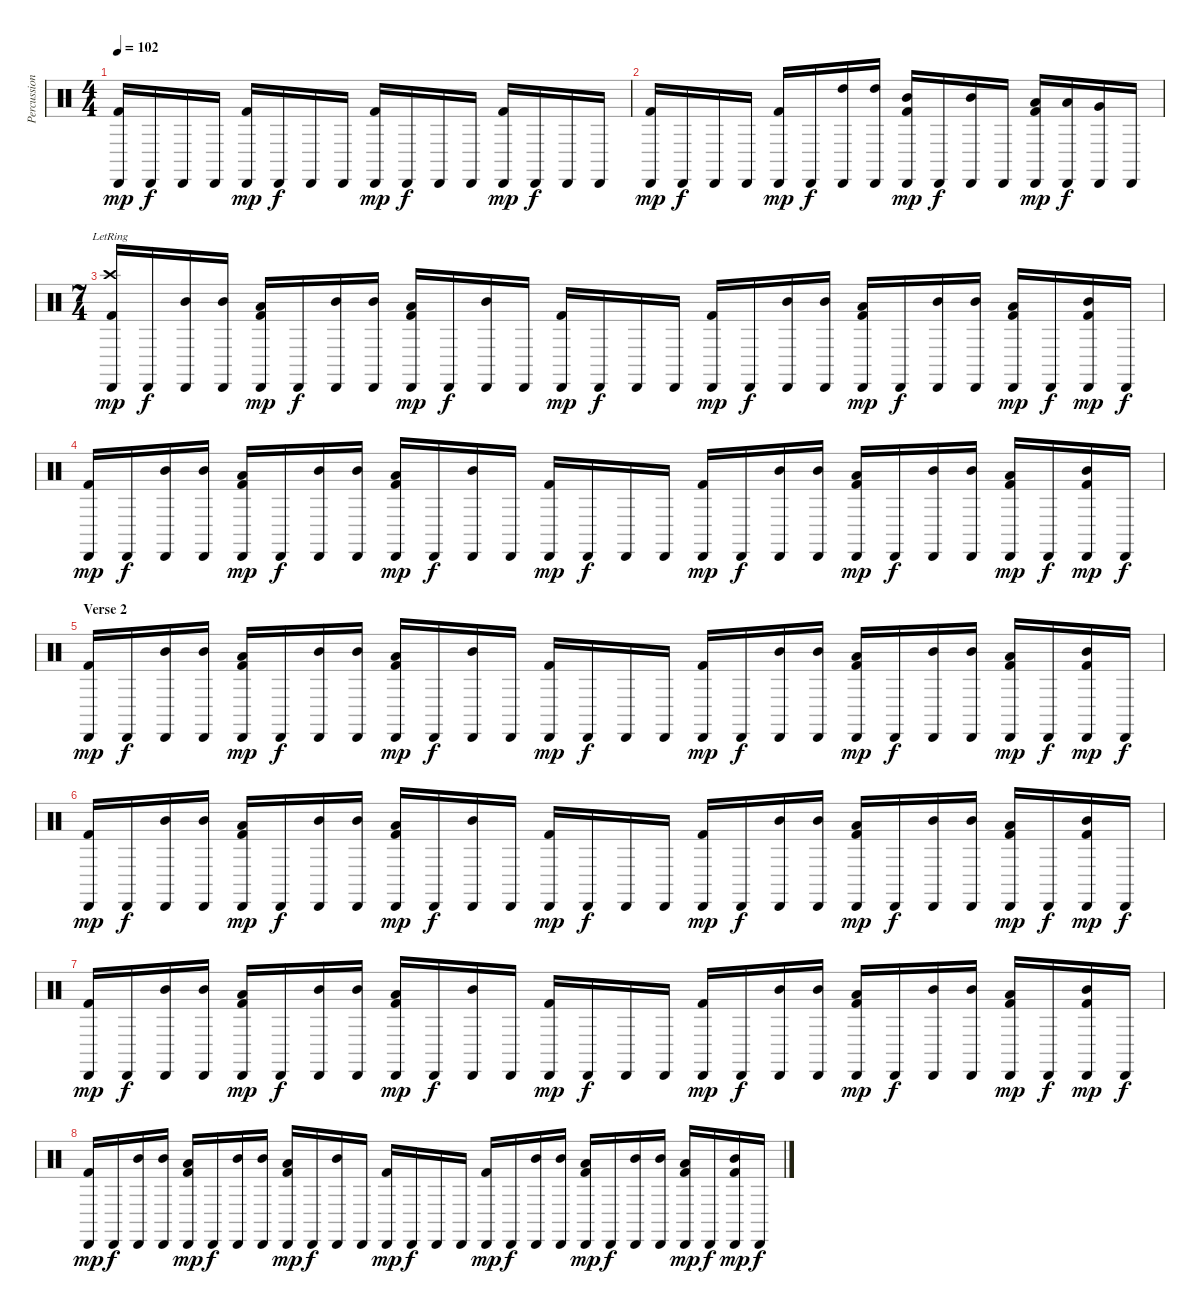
\track ("Percussion" "Percussion") {instrument percussion}
\staff {score}
\articulation defaults
\ts (4 4)
\tempo 102
\clef neutral
\ks c
("Cabasa (hit)" "Kick (hit) 2").16{dy mp} "Cabasa (hit)".16{dy f} "Cabasa (hit)".16 "Cabasa (hit)".16 ("Cabasa (hit)" "Kick (hit) 2").16{dy mp} "Cabasa (hit)".16{dy f} "Cabasa (hit)".16 "Cabasa (hit)".16 ("Cabasa (hit)" "Kick (hit) 2").16{dy mp} "Cabasa (hit)".16{dy f} "Cabasa (hit)".16 "Cabasa (hit)".16 ("Cabasa (hit)" "Kick (hit) 2").16{dy mp} "Cabasa (hit)".16{dy f} "Cabasa (hit)".16 "Cabasa (hit)".16 |
("Cabasa (hit)" "Kick (hit) 2").16{dy mp} "Cabasa (hit)".16{dy f} "Cabasa (hit)".16 "Cabasa (hit)".16 ("Cabasa (hit)" "Kick (hit) 2").16{dy mp} "Cabasa (hit)".16{dy f} ("Cabasa (hit)" "High Tom (hit)").16 ("Cabasa (hit)" "High Tom (hit)").16 ("Cabasa (hit)" "Mid Tom (hit)" "Kick (hit) 2").16{dy mp} "Cabasa (hit)".16{dy f} ("Cabasa (hit)" "Mid Tom (hit)").16 "Cabasa (hit)".16 ("Cabasa (hit)" "Low Tom (hit)" "Kick (hit) 2").16{dy mp} ("Cabasa (hit)" "Low Tom (hit)").16{dy f} ("Cabasa (hit)" "Very Low Tom (hit)").16 "Cabasa (hit)".16 |
\ts (7 4)
("Crash high (hit)"{lr} "Cabasa (hit)" "Kick (hit) 2").16{dy mp} "Cabasa (hit)".16{dy f} ("Cabasa (hit)" "Mid Tom (hit)").16 ("Cabasa (hit)" "Mid Tom (hit)").16 ("Cabasa (hit)" "Low Tom (hit)" "Kick (hit) 2").16{dy mp} "Cabasa (hit)".16{dy f} ("Cabasa (hit)" "Mid Tom (hit)").16 ("Cabasa (hit)" "Mid Tom (hit)").16 ("Cabasa (hit)" "Low Tom (hit)" "Kick (hit) 2").16{dy mp} "Cabasa (hit)".16{dy f} ("Cabasa (hit)" "Mid Tom (hit)").16 "Cabasa (hit)".16 ("Cabasa (hit)" "Kick (hit) 2").16{dy mp} "Cabasa (hit)".16{dy f} "Cabasa (hit)".16 "Cabasa (hit)".16 ("Cabasa (hit)" "Kick (hit) 2").16{dy mp} "Cabasa (hit)".16{dy f} ("Cabasa (hit)" "Mid Tom (hit)").16 ("Cabasa (hit)" "Mid Tom (hit)").16 ("Cabasa (hit)" "Low Tom (hit)" "Kick (hit) 2").16{dy mp} "Cabasa (hit)".16{dy f} ("Cabasa (hit)" "Mid Tom (hit)").16 ("Cabasa (hit)" "Mid Tom (hit)").16 ("Cabasa (hit)" "Low Tom (hit)" "Kick (hit) 2").16{dy mp} "Cabasa (hit)".16{dy f} ("Cabasa (hit)" "Mid Tom (hit)" "Kick (hit) 2").16{dy mp} "Cabasa (hit)".16{dy f} |
("Cabasa (hit)" "Kick (hit) 2").16{dy mp} "Cabasa (hit)".16{dy f} ("Cabasa (hit)" "Mid Tom (hit)").16 ("Cabasa (hit)" "Mid Tom (hit)").16 ("Cabasa (hit)" "Low Tom (hit)" "Kick (hit) 2").16{dy mp} "Cabasa (hit)".16{dy f} ("Cabasa (hit)" "Mid Tom (hit)").16 ("Cabasa (hit)" "Mid Tom (hit)").16 ("Cabasa (hit)" "Low Tom (hit)" "Kick (hit) 2").16{dy mp} "Cabasa (hit)".16{dy f} ("Cabasa (hit)" "Mid Tom (hit)").16 "Cabasa (hit)".16 ("Cabasa (hit)" "Kick (hit) 2").16{dy mp} "Cabasa (hit)".16{dy f} "Cabasa (hit)".16 "Cabasa (hit)".16 ("Cabasa (hit)" "Kick (hit) 2").16{dy mp} "Cabasa (hit)".16{dy f} ("Cabasa (hit)" "Mid Tom (hit)").16 ("Cabasa (hit)" "Mid Tom (hit)").16 ("Cabasa (hit)" "Low Tom (hit)" "Kick (hit) 2").16{dy mp} "Cabasa (hit)".16{dy f} ("Cabasa (hit)" "Mid Tom (hit)").16 ("Cabasa (hit)" "Mid Tom (hit)").16 ("Cabasa (hit)" "Low Tom (hit)" "Kick (hit) 2").16{dy mp} "Cabasa (hit)".16{dy f} ("Cabasa (hit)" "Mid Tom (hit)" "Kick (hit) 2").16{dy mp} "Cabasa (hit)".16{dy f} |
\section ("" "Verse 2")
("Cabasa (hit)" "Kick (hit) 2").16{dy mp} "Cabasa (hit)".16{dy f} ("Cabasa (hit)" "Mid Tom (hit)").16 ("Cabasa (hit)" "Mid Tom (hit)").16 ("Cabasa (hit)" "Low Tom (hit)" "Kick (hit) 2").16{dy mp} "Cabasa (hit)".16{dy f} ("Cabasa (hit)" "Mid Tom (hit)").16 ("Cabasa (hit)" "Mid Tom (hit)").16 ("Cabasa (hit)" "Low Tom (hit)" "Kick (hit) 2").16{dy mp} "Cabasa (hit)".16{dy f} ("Cabasa (hit)" "Mid Tom (hit)").16 "Cabasa (hit)".16 ("Cabasa (hit)" "Kick (hit) 2").16{dy mp} "Cabasa (hit)".16{dy f} "Cabasa (hit)".16 "Cabasa (hit)".16 ("Cabasa (hit)" "Kick (hit) 2").16{dy mp} "Cabasa (hit)".16{dy f} ("Cabasa (hit)" "Mid Tom (hit)").16 ("Cabasa (hit)" "Mid Tom (hit)").16 ("Cabasa (hit)" "Low Tom (hit)" "Kick (hit) 2").16{dy mp} "Cabasa (hit)".16{dy f} ("Cabasa (hit)" "Mid Tom (hit)").16 ("Cabasa (hit)" "Mid Tom (hit)").16 ("Cabasa (hit)" "Low Tom (hit)" "Kick (hit) 2").16{dy mp} "Cabasa (hit)".16{dy f} ("Cabasa (hit)" "Mid Tom (hit)" "Kick (hit) 2").16{dy mp} "Cabasa (hit)".16{dy f} |
("Cabasa (hit)" "Kick (hit) 2").16{dy mp} "Cabasa (hit)".16{dy f} ("Cabasa (hit)" "Mid Tom (hit)").16 ("Cabasa (hit)" "Mid Tom (hit)").16 ("Cabasa (hit)" "Low Tom (hit)" "Kick (hit) 2").16{dy mp} "Cabasa (hit)".16{dy f} ("Cabasa (hit)" "Mid Tom (hit)").16 ("Cabasa (hit)" "Mid Tom (hit)").16 ("Cabasa (hit)" "Low Tom (hit)" "Kick (hit) 2").16{dy mp} "Cabasa (hit)".16{dy f} ("Cabasa (hit)" "Mid Tom (hit)").16 "Cabasa (hit)".16 ("Cabasa (hit)" "Kick (hit) 2").16{dy mp} "Cabasa (hit)".16{dy f} "Cabasa (hit)".16 "Cabasa (hit)".16 ("Cabasa (hit)" "Kick (hit) 2").16{dy mp} "Cabasa (hit)".16{dy f} ("Cabasa (hit)" "Mid Tom (hit)").16 ("Cabasa (hit)" "Mid Tom (hit)").16 ("Cabasa (hit)" "Low Tom (hit)" "Kick (hit) 2").16{dy mp} "Cabasa (hit)".16{dy f} ("Cabasa (hit)" "Mid Tom (hit)").16 ("Cabasa (hit)" "Mid Tom (hit)").16 ("Cabasa (hit)" "Low Tom (hit)" "Kick (hit) 2").16{dy mp} "Cabasa (hit)".16{dy f} ("Cabasa (hit)" "Mid Tom (hit)" "Kick (hit) 2").16{dy mp} "Cabasa (hit)".16{dy f} |
("Cabasa (hit)" "Kick (hit) 2").16{dy mp} "Cabasa (hit)".16{dy f} ("Cabasa (hit)" "Mid Tom (hit)").16 ("Cabasa (hit)" "Mid Tom (hit)").16 ("Cabasa (hit)" "Low Tom (hit)" "Kick (hit) 2").16{dy mp} "Cabasa (hit)".16{dy f} ("Cabasa (hit)" "Mid Tom (hit)").16 ("Cabasa (hit)" "Mid Tom (hit)").16 ("Cabasa (hit)" "Low Tom (hit)" "Kick (hit) 2").16{dy mp} "Cabasa (hit)".16{dy f} ("Cabasa (hit)" "Mid Tom (hit)").16 "Cabasa (hit)".16 ("Cabasa (hit)" "Kick (hit) 2").16{dy mp} "Cabasa (hit)".16{dy f} "Cabasa (hit)".16 "Cabasa (hit)".16 ("Cabasa (hit)" "Kick (hit) 2").16{dy mp} "Cabasa (hit)".16{dy f} ("Cabasa (hit)" "Mid Tom (hit)").16 ("Cabasa (hit)" "Mid Tom (hit)").16 ("Cabasa (hit)" "Low Tom (hit)" "Kick (hit) 2").16{dy mp} "Cabasa (hit)".16{dy f} ("Cabasa (hit)" "Mid Tom (hit)").16 ("Cabasa (hit)" "Mid Tom (hit)").16 ("Cabasa (hit)" "Low Tom (hit)" "Kick (hit) 2").16{dy mp} "Cabasa (hit)".16{dy f} ("Cabasa (hit)" "Mid Tom (hit)" "Kick (hit) 2").16{dy mp} "Cabasa (hit)".16{dy f} |
("Cabasa (hit)" "Kick (hit) 2").16{dy mp} "Cabasa (hit)".16{dy f} ("Cabasa (hit)" "Mid Tom (hit)").16 ("Cabasa (hit)" "Mid Tom (hit)").16 ("Cabasa (hit)" "Low Tom (hit)" "Kick (hit) 2").16{dy mp} "Cabasa (hit)".16{dy f} ("Cabasa (hit)" "Mid Tom (hit)").16 ("Cabasa (hit)" "Mid Tom (hit)").16 ("Cabasa (hit)" "Low Tom (hit)" "Kick (hit) 2").16{dy mp} "Cabasa (hit)".16{dy f} ("Cabasa (hit)" "Mid Tom (hit)").16 "Cabasa (hit)".16 ("Cabasa (hit)" "Kick (hit) 2").16{dy mp} "Cabasa (hit)".16{dy f} "Cabasa (hit)".16 "Cabasa (hit)".16 ("Cabasa (hit)" "Kick (hit) 2").16{dy mp} "Cabasa (hit)".16{dy f} ("Cabasa (hit)" "Mid Tom (hit)").16 ("Cabasa (hit)" "Mid Tom (hit)").16 ("Cabasa (hit)" "Low Tom (hit)" "Kick (hit) 2").16{dy mp} "Cabasa (hit)".16{dy f} ("Cabasa (hit)" "Mid Tom (hit)").16 ("Cabasa (hit)" "Mid Tom (hit)").16 ("Cabasa (hit)" "Low Tom (hit)" "Kick (hit) 2").16{dy mp} "Cabasa (hit)".16{dy f} ("Cabasa (hit)" "Mid Tom (hit)" "Kick (hit) 2").16{dy mp} "Cabasa (hit)".16{dy f}
